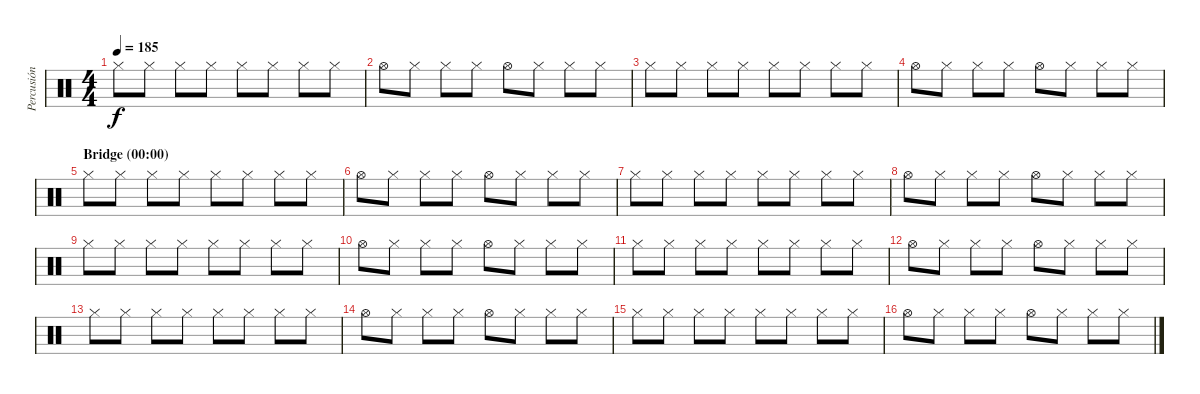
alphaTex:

\track ("Percusión" "Percusión") {instrument percussion}
\staff {score}
\articulation defaults
\ts (4 4)
\tempo 185
\clef neutral
\ks c "Hi-Hat (closed)".8{dy f} "Hi-Hat (closed)".8 "Hi-Hat (closed)".8 "Hi-Hat (closed)".8 "Hi-Hat (closed)".8 "Hi-Hat (closed)".8 "Hi-Hat (closed)".8 "Hi-Hat (closed)".8
|
"Hi-Hat (open)".8 "Hi-Hat (closed)".8 "Hi-Hat (closed)".8 "Hi-Hat (closed)".8 "Hi-Hat (open)".8 "Hi-Hat (closed)".8 "Hi-Hat (closed)".8 "Hi-Hat (closed)".8 |
"Hi-Hat (closed)".8 "Hi-Hat (closed)".8 "Hi-Hat (closed)".8 "Hi-Hat (closed)".8 "Hi-Hat (closed)".8 "Hi-Hat (closed)".8 "Hi-Hat (closed)".8 "Hi-Hat (closed)".8 |
"Hi-Hat (open)".8 "Hi-Hat (closed)".8 "Hi-Hat (closed)".8 "Hi-Hat (closed)".8 "Hi-Hat (open)".8 "Hi-Hat (closed)".8 "Hi-Hat (closed)".8 "Hi-Hat (closed)".8 |
\section ("" "Bridge (00:00)")
"Hi-Hat (closed)".8 "Hi-Hat (closed)".8 "Hi-Hat (closed)".8 "Hi-Hat (closed)".8 "Hi-Hat (closed)".8 "Hi-Hat (closed)".8 "Hi-Hat (closed)".8 "Hi-Hat (closed)".8 |
"Hi-Hat (open)".8 "Hi-Hat (closed)".8 "Hi-Hat (closed)".8 "Hi-Hat (closed)".8 "Hi-Hat (open)".8 "Hi-Hat (closed)".8 "Hi-Hat (closed)".8 "Hi-Hat (closed)".8 |
"Hi-Hat (closed)".8 "Hi-Hat (closed)".8 "Hi-Hat (closed)".8 "Hi-Hat (closed)".8 "Hi-Hat (closed)".8 "Hi-Hat (closed)".8 "Hi-Hat (closed)".8 "Hi-Hat (closed)".8 |
"Hi-Hat (open)".8 "Hi-Hat (closed)".8 "Hi-Hat (closed)".8 "Hi-Hat (closed)".8 "Hi-Hat (open)".8 "Hi-Hat (closed)".8 "Hi-Hat (closed)".8 "Hi-Hat (closed)".8 |
"Hi-Hat (closed)".8 "Hi-Hat (closed)".8 "Hi-Hat (closed)".8 "Hi-Hat (closed)".8 "Hi-Hat (closed)".8 "Hi-Hat (closed)".8 "Hi-Hat (closed)".8 "Hi-Hat (closed)".8 |
"Hi-Hat (open)".8 "Hi-Hat (closed)".8 "Hi-Hat (closed)".8 "Hi-Hat (closed)".8 "Hi-Hat (open)".8 "Hi-Hat (closed)".8 "Hi-Hat (closed)".8 "Hi-Hat (closed)".8 |
"Hi-Hat (closed)".8 "Hi-Hat (closed)".8 "Hi-Hat (closed)".8 "Hi-Hat (closed)".8 "Hi-Hat (closed)".8 "Hi-Hat (closed)".8 "Hi-Hat (closed)".8 "Hi-Hat (closed)".8 |
"Hi-Hat (open)".8 "Hi-Hat (closed)".8 "Hi-Hat (closed)".8 "Hi-Hat (closed)".8 "Hi-Hat (open)".8 "Hi-Hat (closed)".8 "Hi-Hat (closed)".8 "Hi-Hat (closed)".8 |
"Hi-Hat (closed)".8 "Hi-Hat (closed)".8 "Hi-Hat (closed)".8 "Hi-Hat (closed)".8 "Hi-Hat (closed)".8 "Hi-Hat (closed)".8 "Hi-Hat (closed)".8 "Hi-Hat (closed)".8 |
"Hi-Hat (open)".8 "Hi-Hat (closed)".8 "Hi-Hat (closed)".8 "Hi-Hat (closed)".8 "Hi-Hat (open)".8 "Hi-Hat (closed)".8 "Hi-Hat (closed)".8 "Hi-Hat (closed)".8 |
"Hi-Hat (closed)".8 "Hi-Hat (closed)".8 "Hi-Hat (closed)".8 "Hi-Hat (closed)".8 "Hi-Hat (closed)".8 "Hi-Hat (closed)".8 "Hi-Hat (closed)".8 "Hi-Hat (closed)".8 |
"Hi-Hat (open)".8 "Hi-Hat (closed)".8 "Hi-Hat (closed)".8 "Hi-Hat (closed)".8 "Hi-Hat (open)".8 "Hi-Hat (closed)".8 "Hi-Hat (closed)".8 "Hi-Hat (closed)".8
